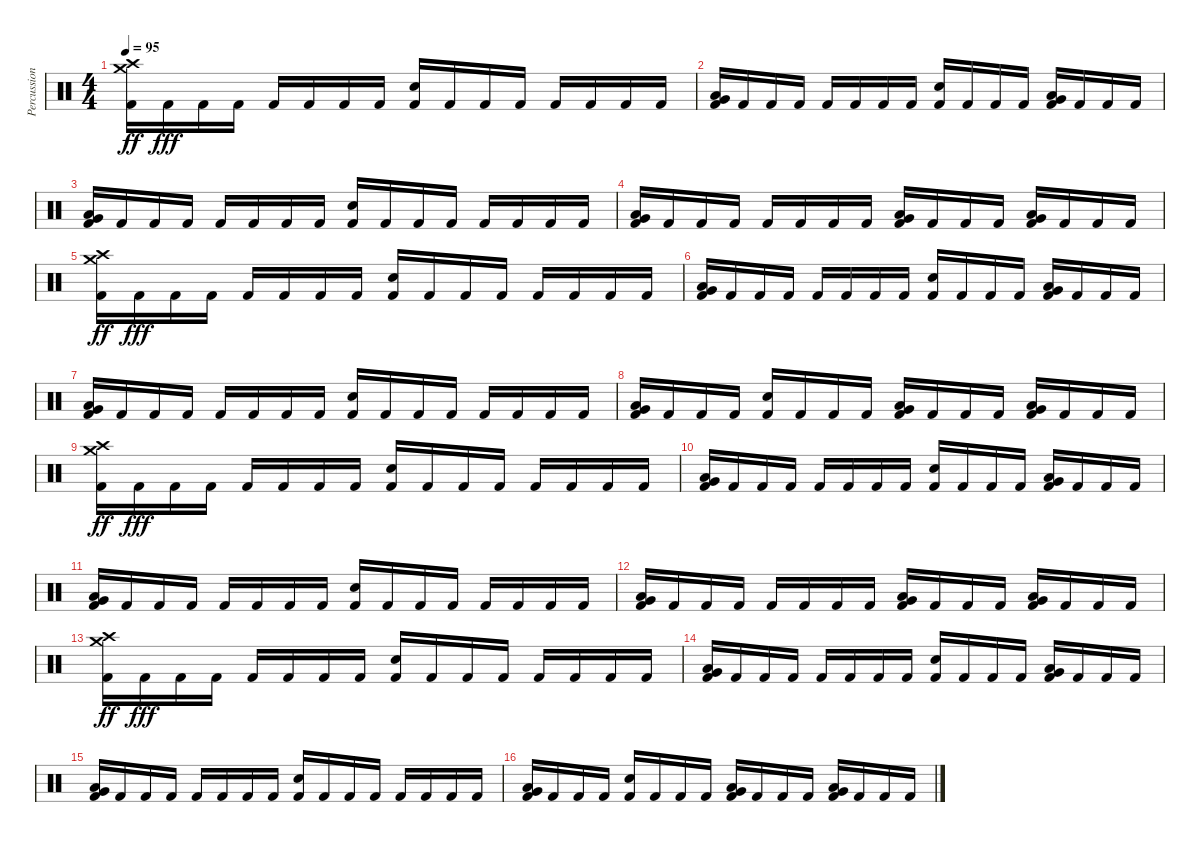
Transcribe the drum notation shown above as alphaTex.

\track ("Percussion" "Percussion") {instrument percussion}
\staff {score}
\articulation defaults
\ts (4 4)
\tempo 95
\clef neutral
\ks c
("Kick (hit) 2" "Crash medium (hit)" "Crash high (hit)").16{dy ff} "Kick (hit) 2".16{dy fff} "Kick (hit) 2".16 "Kick (hit) 2".16 "Kick (hit) 2".16 "Kick (hit) 2".16 "Kick (hit) 2".16 "Kick (hit) 2".16 ("Kick (hit) 2" "Electric Snare (hit)").16 "Kick (hit) 2".16 "Kick (hit) 2".16 "Kick (hit) 2".16 "Kick (hit) 2".16 "Kick (hit) 2".16 "Kick (hit) 2".16 "Kick (hit) 2".16 |
("Kick (hit) 2" "Very Low Tom (hit)" "Low Tom (hit)").16 "Kick (hit) 2".16 "Kick (hit) 2".16 "Kick (hit) 2".16 "Kick (hit) 2".16 "Kick (hit) 2".16 "Kick (hit) 2".16 "Kick (hit) 2".16 ("Kick (hit) 2" "Electric Snare (hit)").16 "Kick (hit) 2".16 "Kick (hit) 2".16 "Kick (hit) 2".16 ("Kick (hit) 2" "Low Tom (hit)" "Very Low Tom (hit)").16 "Kick (hit) 2".16 "Kick (hit) 2".16 "Kick (hit) 2".16 |
("Kick (hit) 2" "Low Tom (hit)" "Very Low Tom (hit)").16 "Kick (hit) 2".16 "Kick (hit) 2".16 "Kick (hit) 2".16 "Kick (hit) 2".16 "Kick (hit) 2".16 "Kick (hit) 2".16 "Kick (hit) 2".16 ("Kick (hit) 2" "Electric Snare (hit)").16 "Kick (hit) 2".16 "Kick (hit) 2".16 "Kick (hit) 2".16 "Kick (hit) 2".16 "Kick (hit) 2".16 "Kick (hit) 2".16 "Kick (hit) 2".16 |
("Kick (hit) 2" "Low Tom (hit)" "Very Low Tom (hit)").16 "Kick (hit) 2".16 "Kick (hit) 2".16 "Kick (hit) 2".16 "Kick (hit) 2".16 "Kick (hit) 2".16 "Kick (hit) 2".16 "Kick (hit) 2".16 ("Kick (hit) 2" "Low Tom (hit)" "Very Low Tom (hit)").16 "Kick (hit) 2".16 "Kick (hit) 2".16 "Kick (hit) 2".16 ("Kick (hit) 2" "Low Tom (hit)" "Very Low Tom (hit)").16 "Kick (hit) 2".16 "Kick (hit) 2".16 "Kick (hit) 2".16 |
("Kick (hit) 2" "Crash medium (hit)" "Crash high (hit)").16{dy ff} "Kick (hit) 2".16{dy fff} "Kick (hit) 2".16 "Kick (hit) 2".16 "Kick (hit) 2".16 "Kick (hit) 2".16 "Kick (hit) 2".16 "Kick (hit) 2".16 ("Kick (hit) 2" "Electric Snare (hit)").16 "Kick (hit) 2".16 "Kick (hit) 2".16 "Kick (hit) 2".16 "Kick (hit) 2".16 "Kick (hit) 2".16 "Kick (hit) 2".16 "Kick (hit) 2".16 |
("Kick (hit) 2" "Very Low Tom (hit)" "Low Tom (hit)").16 "Kick (hit) 2".16 "Kick (hit) 2".16 "Kick (hit) 2".16 "Kick (hit) 2".16 "Kick (hit) 2".16 "Kick (hit) 2".16 "Kick (hit) 2".16 ("Kick (hit) 2" "Electric Snare (hit)").16 "Kick (hit) 2".16 "Kick (hit) 2".16 "Kick (hit) 2".16 ("Kick (hit) 2" "Low Tom (hit)" "Very Low Tom (hit)").16 "Kick (hit) 2".16 "Kick (hit) 2".16 "Kick (hit) 2".16 |
("Kick (hit) 2" "Low Tom (hit)" "Very Low Tom (hit)").16 "Kick (hit) 2".16 "Kick (hit) 2".16 "Kick (hit) 2".16 "Kick (hit) 2".16 "Kick (hit) 2".16 "Kick (hit) 2".16 "Kick (hit) 2".16 ("Kick (hit) 2" "Electric Snare (hit)").16 "Kick (hit) 2".16 "Kick (hit) 2".16 "Kick (hit) 2".16 "Kick (hit) 2".16 "Kick (hit) 2".16 "Kick (hit) 2".16 "Kick (hit) 2".16 |
("Kick (hit) 2" "Low Tom (hit)" "Very Low Tom (hit)").16 "Kick (hit) 2".16 "Kick (hit) 2".16 "Kick (hit) 2".16 ("Kick (hit) 2" "Electric Snare (hit)").16 "Kick (hit) 2".16 "Kick (hit) 2".16 "Kick (hit) 2".16 ("Kick (hit) 2" "Low Tom (hit)" "Very Low Tom (hit)").16 "Kick (hit) 2".16 "Kick (hit) 2".16 "Kick (hit) 2".16 ("Kick (hit) 2" "Low Tom (hit)" "Very Low Tom (hit)").16 "Kick (hit) 2".16 "Kick (hit) 2".16 "Kick (hit) 2".16 |
("Kick (hit) 2" "Crash medium (hit)" "Crash high (hit)").16{dy ff} "Kick (hit) 2".16{dy fff} "Kick (hit) 2".16 "Kick (hit) 2".16 "Kick (hit) 2".16 "Kick (hit) 2".16 "Kick (hit) 2".16 "Kick (hit) 2".16 ("Kick (hit) 2" "Electric Snare (hit)").16 "Kick (hit) 2".16 "Kick (hit) 2".16 "Kick (hit) 2".16 "Kick (hit) 2".16 "Kick (hit) 2".16 "Kick (hit) 2".16 "Kick (hit) 2".16 |
("Kick (hit) 2" "Very Low Tom (hit)" "Low Tom (hit)").16 "Kick (hit) 2".16 "Kick (hit) 2".16 "Kick (hit) 2".16 "Kick (hit) 2".16 "Kick (hit) 2".16 "Kick (hit) 2".16 "Kick (hit) 2".16 ("Kick (hit) 2" "Electric Snare (hit)").16 "Kick (hit) 2".16 "Kick (hit) 2".16 "Kick (hit) 2".16 ("Kick (hit) 2" "Low Tom (hit)" "Very Low Tom (hit)").16 "Kick (hit) 2".16 "Kick (hit) 2".16 "Kick (hit) 2".16 |
("Kick (hit) 2" "Low Tom (hit)" "Very Low Tom (hit)").16 "Kick (hit) 2".16 "Kick (hit) 2".16 "Kick (hit) 2".16 "Kick (hit) 2".16 "Kick (hit) 2".16 "Kick (hit) 2".16 "Kick (hit) 2".16 ("Kick (hit) 2" "Electric Snare (hit)").16 "Kick (hit) 2".16 "Kick (hit) 2".16 "Kick (hit) 2".16 "Kick (hit) 2".16 "Kick (hit) 2".16 "Kick (hit) 2".16 "Kick (hit) 2".16 |
("Kick (hit) 2" "Low Tom (hit)" "Very Low Tom (hit)").16 "Kick (hit) 2".16 "Kick (hit) 2".16 "Kick (hit) 2".16 "Kick (hit) 2".16 "Kick (hit) 2".16 "Kick (hit) 2".16 "Kick (hit) 2".16 ("Kick (hit) 2" "Low Tom (hit)" "Very Low Tom (hit)").16 "Kick (hit) 2".16 "Kick (hit) 2".16 "Kick (hit) 2".16 ("Kick (hit) 2" "Low Tom (hit)" "Very Low Tom (hit)").16 "Kick (hit) 2".16 "Kick (hit) 2".16 "Kick (hit) 2".16 |
("Kick (hit) 2" "Crash medium (hit)" "Crash high (hit)").16{dy ff} "Kick (hit) 2".16{dy fff} "Kick (hit) 2".16 "Kick (hit) 2".16 "Kick (hit) 2".16 "Kick (hit) 2".16 "Kick (hit) 2".16 "Kick (hit) 2".16 ("Kick (hit) 2" "Electric Snare (hit)").16 "Kick (hit) 2".16 "Kick (hit) 2".16 "Kick (hit) 2".16 "Kick (hit) 2".16 "Kick (hit) 2".16 "Kick (hit) 2".16 "Kick (hit) 2".16 |
("Kick (hit) 2" "Very Low Tom (hit)" "Low Tom (hit)").16 "Kick (hit) 2".16 "Kick (hit) 2".16 "Kick (hit) 2".16 "Kick (hit) 2".16 "Kick (hit) 2".16 "Kick (hit) 2".16 "Kick (hit) 2".16 ("Kick (hit) 2" "Electric Snare (hit)").16 "Kick (hit) 2".16 "Kick (hit) 2".16 "Kick (hit) 2".16 ("Kick (hit) 2" "Low Tom (hit)" "Very Low Tom (hit)").16 "Kick (hit) 2".16 "Kick (hit) 2".16 "Kick (hit) 2".16 |
("Kick (hit) 2" "Low Tom (hit)" "Very Low Tom (hit)").16 "Kick (hit) 2".16 "Kick (hit) 2".16 "Kick (hit) 2".16 "Kick (hit) 2".16 "Kick (hit) 2".16 "Kick (hit) 2".16 "Kick (hit) 2".16 ("Kick (hit) 2" "Electric Snare (hit)").16 "Kick (hit) 2".16 "Kick (hit) 2".16 "Kick (hit) 2".16 "Kick (hit) 2".16 "Kick (hit) 2".16 "Kick (hit) 2".16 "Kick (hit) 2".16 |
("Kick (hit) 2" "Low Tom (hit)" "Very Low Tom (hit)").16 "Kick (hit) 2".16 "Kick (hit) 2".16 "Kick (hit) 2".16 ("Kick (hit) 2" "Electric Snare (hit)").16 "Kick (hit) 2".16 "Kick (hit) 2".16 "Kick (hit) 2".16 ("Kick (hit) 2" "Low Tom (hit)" "Very Low Tom (hit)").16 "Kick (hit) 2".16 "Kick (hit) 2".16 "Kick (hit) 2".16 ("Kick (hit) 2" "Low Tom (hit)" "Very Low Tom (hit)").16 "Kick (hit) 2".16 "Kick (hit) 2".16 "Kick (hit) 2".16
